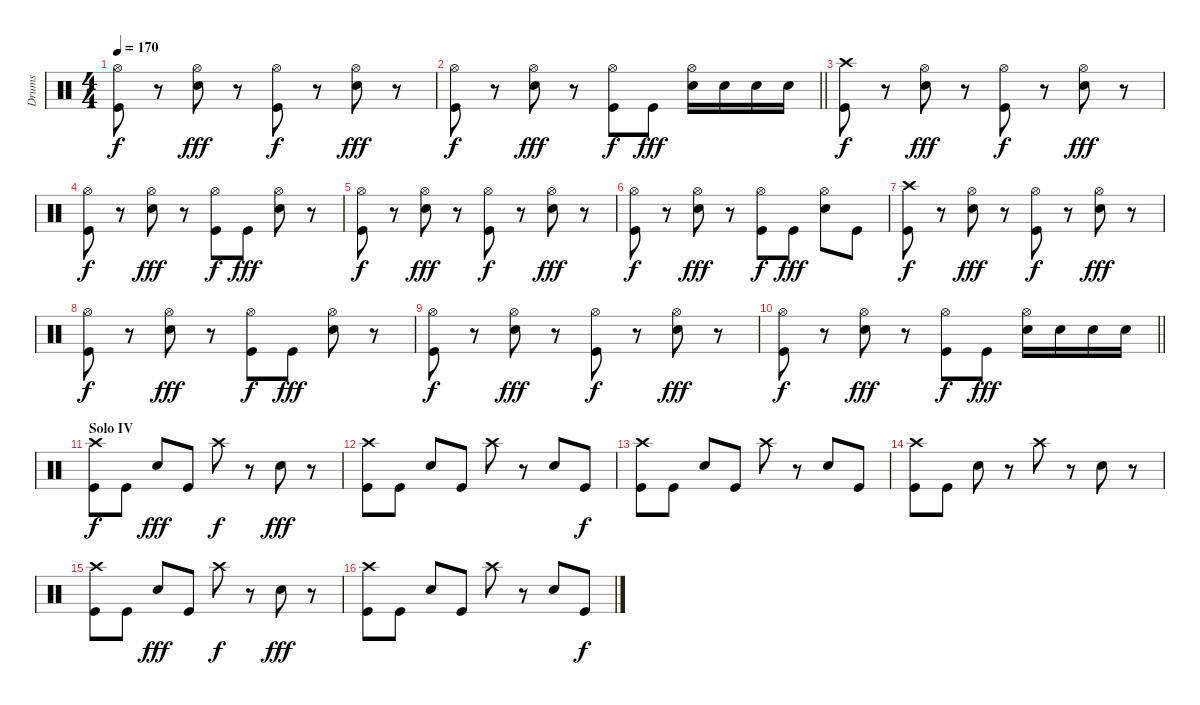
\track ("Drums" "Drums") {instrument percussion}
\staff {score}
\articulation defaults
\ts (4 4)
\tempo 170
\clef neutral
\ks c
("Hi-Hat (open)" "Kick (hit)").8{dy f} r.8 ("Hi-Hat (open)" "Snare (hit) 2").8{dy fff} r.8 ("Hi-Hat (open)" "Kick (hit)").8{dy f} r.8 ("Hi-Hat (open)" "Snare (hit) 2").8{dy fff} r.8 |
\barLineRight lightlight
("Hi-Hat (open)" "Kick (hit)").8{dy f} r.8 ("Hi-Hat (open)" "Snare (hit) 2").8{dy fff} r.8 ("Hi-Hat (open)" "Kick (hit)").8{dy f} "Kick (hit)".8{dy fff} ("Hi-Hat (open)" "Snare (hit) 2").16 "Snare (hit) 2".16 "Snare (hit) 2".16 "Snare (hit) 2".16 |
("Crash high (hit)" "Kick (hit)").8{dy f} r.8 ("Hi-Hat (open)" "Snare (hit) 2").8{dy fff} r.8 ("Hi-Hat (open)" "Kick (hit)").8{dy f} r.8 ("Hi-Hat (open)" "Snare (hit) 2").8{dy fff} r.8 |
("Hi-Hat (open)" "Kick (hit)").8{dy f} r.8 ("Hi-Hat (open)" "Snare (hit) 2").8{dy fff} r.8 ("Hi-Hat (open)" "Kick (hit)").8{dy f} "Kick (hit)".8{dy fff} ("Hi-Hat (open)" "Snare (hit) 2").8 r.8 |
("Hi-Hat (open)" "Kick (hit)").8{dy f} r.8 ("Hi-Hat (open)" "Snare (hit) 2").8{dy fff} r.8 ("Hi-Hat (open)" "Kick (hit)").8{dy f} r.8 ("Hi-Hat (open)" "Snare (hit) 2").8{dy fff} r.8 |
("Hi-Hat (open)" "Kick (hit)").8{dy f} r.8 ("Hi-Hat (open)" "Snare (hit) 2").8{dy fff} r.8 ("Hi-Hat (open)" "Kick (hit)").8{dy f} "Kick (hit)".8{dy fff} ("Hi-Hat (open)" "Snare (hit) 2").8 "Kick (hit)".8 |
("Crash high (hit)" "Kick (hit)").8{dy f} r.8 ("Hi-Hat (open)" "Snare (hit) 2").8{dy fff} r.8 ("Hi-Hat (open)" "Kick (hit)").8{dy f} r.8 ("Hi-Hat (open)" "Snare (hit) 2").8{dy fff} r.8 |
("Hi-Hat (open)" "Kick (hit)").8{dy f} r.8 ("Hi-Hat (open)" "Snare (hit) 2").8{dy fff} r.8 ("Hi-Hat (open)" "Kick (hit)").8{dy f} "Kick (hit)".8{dy fff} ("Hi-Hat (open)" "Snare (hit) 2").8 r.8 |
("Hi-Hat (open)" "Kick (hit)").8{dy f} r.8 ("Hi-Hat (open)" "Snare (hit) 2").8{dy fff} r.8 ("Hi-Hat (open)" "Kick (hit)").8{dy f} r.8 ("Hi-Hat (open)" "Snare (hit) 2").8{dy fff} r.8 |
\barLineRight lightlight
("Hi-Hat (open)" "Kick (hit)").8{dy f} r.8 ("Hi-Hat (open)" "Snare (hit) 2").8{dy fff} r.8 ("Hi-Hat (open)" "Kick (hit)").8{dy f} "Kick (hit)".8{dy fff} ("Hi-Hat (open)" "Snare (hit) 2").16 "Snare (hit) 2".16 "Snare (hit) 2".16 "Snare (hit) 2".16 |
\section ("" "Solo IV")
("Crash high (hit)" "Kick (hit)").8{dy f} "Kick (hit)".8 "Snare (hit) 2".8{dy fff} "Kick (hit)".8 "Crash high (hit)".8{dy f} r.8 "Snare (hit) 2".8{dy fff} r.8 |
("Crash high (hit)" "Kick (hit)").8 "Kick (hit)".8 "Snare (hit) 2".8 "Kick (hit)".8 "Crash high (hit)".8 r.8 "Snare (hit) 2".8 "Kick (hit)".8{dy f} |
("Crash high (hit)" "Kick (hit)").8 "Kick (hit)".8 "Snare (hit) 2".8 "Kick (hit)".8 "Crash high (hit)".8 r.8 "Snare (hit) 2".8 "Kick (hit)".8 |
("Crash high (hit)" "Kick (hit)").8 "Kick (hit)".8 "Snare (hit) 2".8 r.8 "Crash high (hit)".8 r.8 "Snare (hit) 2".8 r.8 |
("Crash high (hit)" "Kick (hit)").8 "Kick (hit)".8 "Snare (hit) 2".8{dy fff} "Kick (hit)".8 "Crash high (hit)".8{dy f} r.8 "Snare (hit) 2".8{dy fff} r.8 |
("Crash high (hit)" "Kick (hit)").8 "Kick (hit)".8 "Snare (hit) 2".8 "Kick (hit)".8 "Crash high (hit)".8 r.8 "Snare (hit) 2".8 "Kick (hit)".8{dy f}
